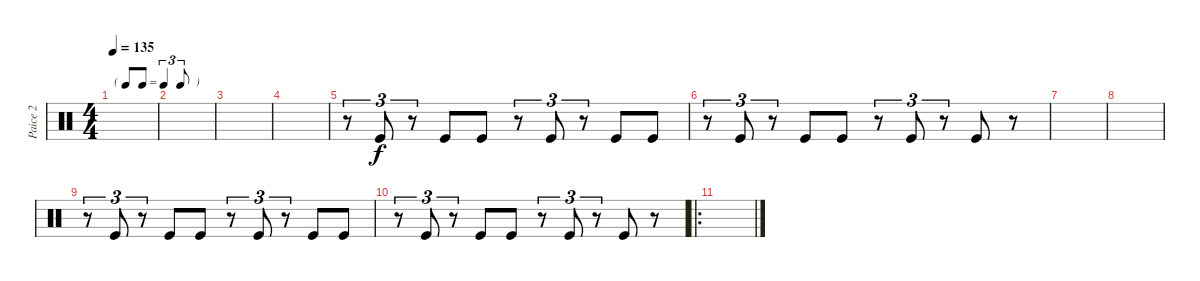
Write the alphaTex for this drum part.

\track ("Paice 2" "Paice 2") {instrument percussion}
\staff {score}
\articulation defaults
\ts (4 4)
\tf triplet8th
\tempo 135
\clef neutral
\ks c
|
|
|
|
r.8{tu (3 2)} "Kick (hit)".8{tu (3 2)} r.8{tu (3 2)} "Kick (hit)".8 "Kick (hit)".8 r.8{tu (3 2)} "Kick (hit)".8{tu (3 2)} r.8{tu (3 2)} "Kick (hit)".8 "Kick (hit)".8 |
r.8{tu (3 2)} "Kick (hit)".8{tu (3 2)} r.8{tu (3 2)} "Kick (hit)".8 "Kick (hit)".8 r.8{tu (3 2)} "Kick (hit)".8{tu (3 2)} r.8{tu (3 2)} "Kick (hit)".8 r.8 |
|
|
r.8{tu (3 2)} "Kick (hit)".8{tu (3 2)} r.8{tu (3 2)} "Kick (hit)".8 "Kick (hit)".8 r.8{tu (3 2)} "Kick (hit)".8{tu (3 2)} r.8{tu (3 2)} "Kick (hit)".8 "Kick (hit)".8 |
r.8{tu (3 2)} "Kick (hit)".8{tu (3 2)} r.8{tu (3 2)} "Kick (hit)".8 "Kick (hit)".8 r.8{tu (3 2)} "Kick (hit)".8{tu (3 2)} r.8{tu (3 2)} "Kick (hit)".8 r.8 |
\ro
